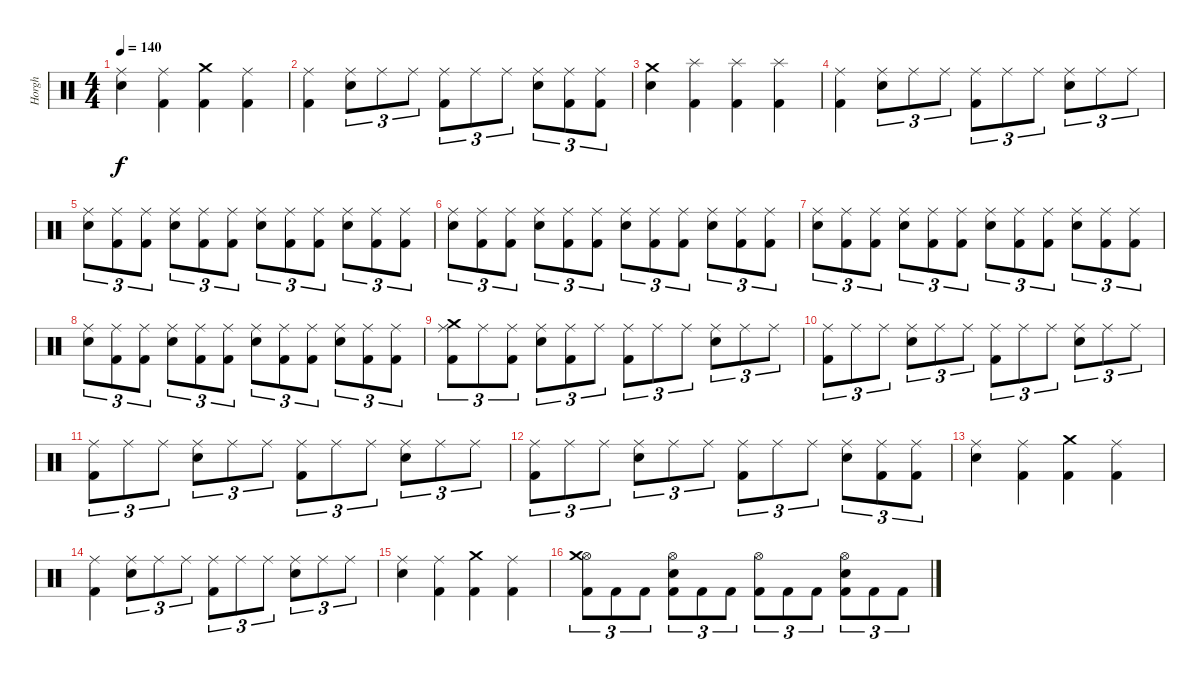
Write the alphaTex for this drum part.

\track ("Horgh" "Horgh") {instrument percussion}
\staff {score}
\articulation defaults
\ts (4 4)
\tempo 140
\clef neutral
\ks c
("Electric Snare (hit)" "Ride (middle)").4{dy f} ("Kick (hit) 2" "Ride (middle)").4 ("Kick (hit) 2" "Crash medium (hit)").4 ("Kick (hit) 2" "Ride (middle)").4 |
("Kick (hit) 2" "Ride (middle)").4 ("Electric Snare (hit)" "Ride (middle)").8{tu (3 2)} "Ride (middle)".8{tu (3 2)} "Ride (middle)".8{tu (3 2)} ("Kick (hit) 2" "Ride (middle)").8{tu (3 2)} "Ride (middle)".8{tu (3 2)} "Ride (middle)".8{tu (3 2)} ("Electric Snare (hit)" "Ride (middle)").8{tu (3 2)} ("Kick (hit) 2" "Ride (middle)").8{tu (3 2)} ("Kick (hit) 2" "Ride (middle)").8{tu (3 2)} |
("Electric Snare (hit)" "Crash medium (hit)").4 ("Kick (hit) 2" "Splash (hit)").4 ("Kick (hit) 2" "Splash (hit)").4 ("Kick (hit) 2" "Splash (hit)").4 |
("Kick (hit) 2" "Ride (middle)").4 ("Electric Snare (hit)" "Ride (middle)").8{tu (3 2)} "Ride (middle)".8{tu (3 2)} "Ride (middle)".8{tu (3 2)} ("Kick (hit) 2" "Ride (middle)").8{tu (3 2)} "Ride (middle)".8{tu (3 2)} "Ride (middle)".8{tu (3 2)} ("Electric Snare (hit)" "Ride (middle)").8{tu (3 2)} "Ride (middle)".8{tu (3 2)} "Ride (middle)".8{tu (3 2)} |
("Electric Snare (hit)" "Ride (middle)").8{tu (3 2)} ("Kick (hit) 2" "Ride (middle)").8{tu (3 2)} ("Kick (hit) 2" "Ride (middle)").8{tu (3 2)} ("Electric Snare (hit)" "Ride (middle)").8{tu (3 2)} ("Kick (hit) 2" "Ride (middle)").8{tu (3 2)} ("Kick (hit) 2" "Ride (middle)").8{tu (3 2)} ("Electric Snare (hit)" "Ride (middle)").8{tu (3 2)} ("Kick (hit) 2" "Ride (middle)").8{tu (3 2)} ("Kick (hit) 2" "Ride (middle)").8{tu (3 2)} ("Electric Snare (hit)" "Ride (middle)").8{tu (3 2)} ("Kick (hit) 2" "Ride (middle)").8{tu (3 2)} ("Kick (hit) 2" "Ride (middle)").8{tu (3 2)} |
("Electric Snare (hit)" "Ride (middle)").8{tu (3 2)} ("Kick (hit) 2" "Ride (middle)").8{tu (3 2)} ("Kick (hit) 2" "Ride (middle)").8{tu (3 2)} ("Electric Snare (hit)" "Ride (middle)").8{tu (3 2)} ("Kick (hit) 2" "Ride (middle)").8{tu (3 2)} ("Kick (hit) 2" "Ride (middle)").8{tu (3 2)} ("Electric Snare (hit)" "Ride (middle)").8{tu (3 2)} ("Kick (hit) 2" "Ride (middle)").8{tu (3 2)} ("Kick (hit) 2" "Ride (middle)").8{tu (3 2)} ("Electric Snare (hit)" "Ride (middle)").8{tu (3 2)} ("Kick (hit) 2" "Ride (middle)").8{tu (3 2)} ("Kick (hit) 2" "Ride (middle)").8{tu (3 2)} |
("Electric Snare (hit)" "Ride (middle)").8{tu (3 2)} ("Kick (hit) 2" "Ride (middle)").8{tu (3 2)} ("Kick (hit) 2" "Ride (middle)").8{tu (3 2)} ("Electric Snare (hit)" "Ride (middle)").8{tu (3 2)} ("Kick (hit) 2" "Ride (middle)").8{tu (3 2)} ("Kick (hit) 2" "Ride (middle)").8{tu (3 2)} ("Electric Snare (hit)" "Ride (middle)").8{tu (3 2)} ("Kick (hit) 2" "Ride (middle)").8{tu (3 2)} ("Kick (hit) 2" "Ride (middle)").8{tu (3 2)} ("Electric Snare (hit)" "Ride (middle)").8{tu (3 2)} ("Kick (hit) 2" "Ride (middle)").8{tu (3 2)} ("Kick (hit) 2" "Ride (middle)").8{tu (3 2)} |
("Electric Snare (hit)" "Ride (middle)").8{tu (3 2)} ("Kick (hit) 2" "Ride (middle)").8{tu (3 2)} ("Kick (hit) 2" "Ride (middle)").8{tu (3 2)} ("Electric Snare (hit)" "Ride (middle)").8{tu (3 2)} ("Kick (hit) 2" "Ride (middle)").8{tu (3 2)} ("Kick (hit) 2" "Ride (middle)").8{tu (3 2)} ("Electric Snare (hit)" "Ride (middle)").8{tu (3 2)} ("Kick (hit) 2" "Ride (middle)").8{tu (3 2)} ("Kick (hit) 2" "Ride (middle)").8{tu (3 2)} ("Electric Snare (hit)" "Ride (middle)").8{tu (3 2)} ("Kick (hit) 2" "Ride (middle)").8{tu (3 2)} ("Kick (hit) 2" "Ride (middle)").8{tu (3 2)} |
("Kick (hit) 2" "Ride (middle)" "Crash medium (hit)").8{tu (3 2)} "Ride (middle)".8{tu (3 2)} ("Kick (hit) 2" "Ride (middle)").8{tu (3 2)} ("Electric Snare (hit)" "Ride (middle)").8{tu (3 2)} ("Kick (hit) 2" "Ride (middle)").8{tu (3 2)} "Ride (middle)".8{tu (3 2)} ("Kick (hit) 2" "Ride (middle)").8{tu (3 2)} "Ride (middle)".8{tu (3 2)} "Ride (middle)".8{tu (3 2)} ("Electric Snare (hit)" "Ride (middle)").8{tu (3 2)} "Ride (middle)".8{tu (3 2)} "Ride (middle)".8{tu (3 2)} |
("Kick (hit) 2" "Ride (middle)").8{tu (3 2)} "Ride (middle)".8{tu (3 2)} "Ride (middle)".8{tu (3 2)} ("Electric Snare (hit)" "Ride (middle)").8{tu (3 2)} "Ride (middle)".8{tu (3 2)} "Ride (middle)".8{tu (3 2)} ("Kick (hit) 2" "Ride (middle)").8{tu (3 2)} "Ride (middle)".8{tu (3 2)} "Ride (middle)".8{tu (3 2)} ("Electric Snare (hit)" "Ride (middle)").8{tu (3 2)} "Ride (middle)".8{tu (3 2)} "Ride (middle)".8{tu (3 2)} |
("Kick (hit) 2" "Ride (middle)").8{tu (3 2)} "Ride (middle)".8{tu (3 2)} "Ride (middle)".8{tu (3 2)} ("Electric Snare (hit)" "Ride (middle)").8{tu (3 2)} "Ride (middle)".8{tu (3 2)} "Ride (middle)".8{tu (3 2)} ("Kick (hit) 2" "Ride (middle)").8{tu (3 2)} "Ride (middle)".8{tu (3 2)} "Ride (middle)".8{tu (3 2)} ("Electric Snare (hit)" "Ride (middle)").8{tu (3 2)} "Ride (middle)".8{tu (3 2)} "Ride (middle)".8{tu (3 2)} |
("Kick (hit) 2" "Ride (middle)").8{tu (3 2)} "Ride (middle)".8{tu (3 2)} "Ride (middle)".8{tu (3 2)} ("Electric Snare (hit)" "Ride (middle)").8{tu (3 2)} "Ride (middle)".8{tu (3 2)} "Ride (middle)".8{tu (3 2)} ("Kick (hit) 2" "Ride (middle)").8{tu (3 2)} "Ride (middle)".8{tu (3 2)} "Ride (middle)".8{tu (3 2)} ("Electric Snare (hit)" "Ride (middle)").8{tu (3 2)} ("Kick (hit) 2" "Ride (middle)").8{tu (3 2)} ("Kick (hit) 2" "Ride (middle)").8{tu (3 2)} |
("Electric Snare (hit)" "Ride (middle)").4 ("Kick (hit) 2" "Ride (middle)").4 ("Kick (hit) 2" "Crash medium (hit)").4 ("Kick (hit) 2" "Ride (middle)").4 |
("Kick (hit) 2" "Ride (middle)").4 ("Electric Snare (hit)" "Ride (middle)").8{tu (3 2)} "Ride (middle)".8{tu (3 2)} "Ride (middle)".8{tu (3 2)} ("Kick (hit) 2" "Ride (middle)").8{tu (3 2)} "Ride (middle)".8{tu (3 2)} "Ride (middle)".8{tu (3 2)} ("Electric Snare (hit)" "Ride (middle)").8{tu (3 2)} "Ride (middle)".8{tu (3 2)} "Ride (middle)".8{tu (3 2)} |
("Electric Snare (hit)" "Ride (middle)").4 ("Kick (hit) 2" "Ride (middle)").4 ("Kick (hit) 2" "Crash medium (hit)").4 ("Kick (hit) 2" "Ride (middle)").4 |
("Kick (hit) 2" "Hi-Hat (open)" "Crash medium (hit)").8{tu (3 2)} "Kick (hit) 2".8{tu (3 2)} "Kick (hit) 2".8{tu (3 2)} ("Kick (hit) 2" "Electric Snare (hit)" "Hi-Hat (open)").8{tu (3 2)} "Kick (hit) 2".8{tu (3 2)} "Kick (hit) 2".8{tu (3 2)} ("Kick (hit) 2" "Hi-Hat (open)").8{tu (3 2)} "Kick (hit) 2".8{tu (3 2)} "Kick (hit) 2".8{tu (3 2)} ("Kick (hit) 2" "Electric Snare (hit)" "Hi-Hat (open)").8{tu (3 2)} "Kick (hit) 2".8{tu (3 2)} "Kick (hit) 2".8{tu (3 2)}
